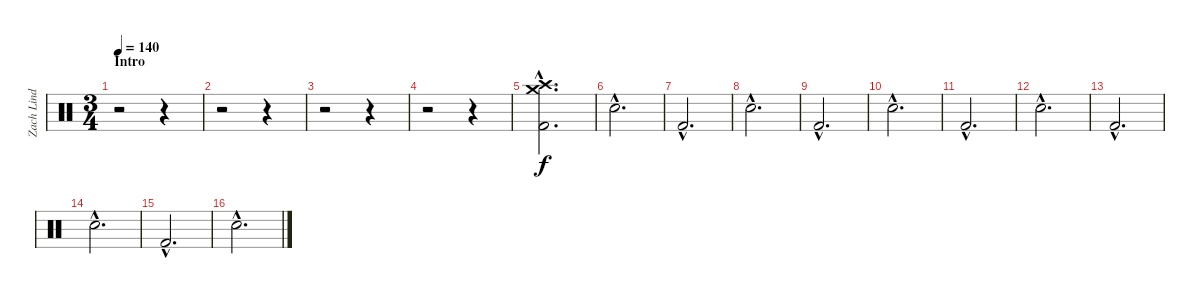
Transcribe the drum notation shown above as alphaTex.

\track ("Zach Lind - Drums" "Zach Lind ") {instrument percussion}
\staff {score}
\articulation defaults
\ts (3 4)
\section ("" "Intro")
\tempo 140
\clef neutral
\ks c
r.2{dy f} r.4 |
r.2 r.4 |
r.2 r.4 |
r.2 r.4 |
("Crash medium (hit)"{hac} "Crash high (hit)"{hac} "Kick (hit) 2"{hac}).2{d} |
"Electric Snare (hit)"{hac}.2{d} |
"Kick (hit) 2"{hac}.2{d} |
"Electric Snare (hit)"{hac}.2{d} |
"Kick (hit) 2"{hac}.2{d} |
"Electric Snare (hit)"{hac}.2{d} |
"Kick (hit) 2"{hac}.2{d} |
"Electric Snare (hit)"{hac}.2{d} |
"Kick (hit) 2"{hac}.2{d} |
"Electric Snare (hit)"{hac}.2{d} |
"Kick (hit) 2"{hac}.2{d} |
"Electric Snare (hit)"{hac}.2{d}
